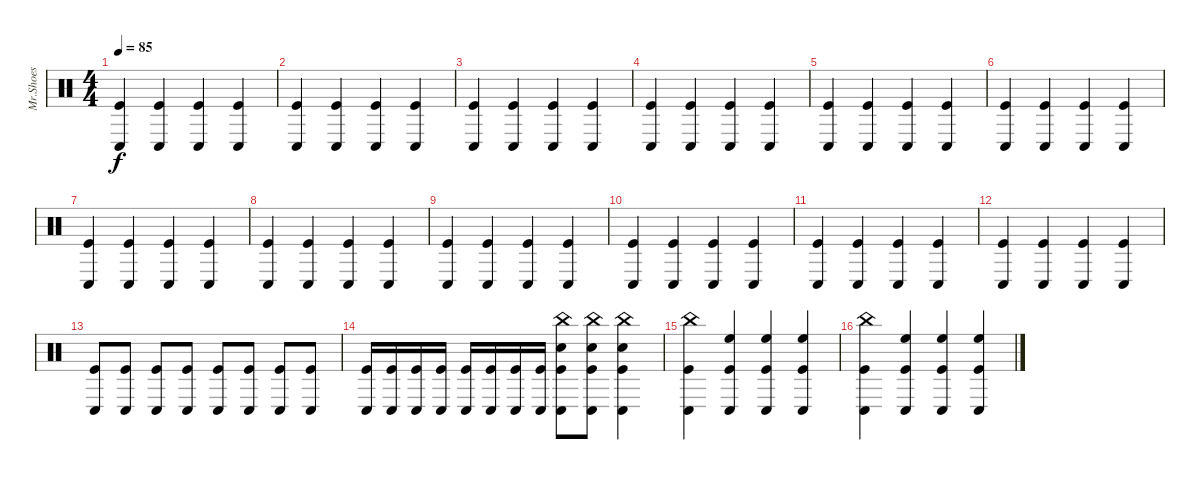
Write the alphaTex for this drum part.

\track ("Mr.Shoes" "Mr.Shoes") {instrument percussion}
\staff {score}
\articulation defaults
\ts (4 4)
\tempo 85
\clef neutral
\ks c
("Kick (hit)" "Conga low (hit)").4{dy f} ("Kick (hit)" "Conga low (hit)").4 ("Kick (hit)" "Conga low (hit)").4 ("Kick (hit)" "Conga low (hit)").4 |
("Kick (hit)" "Conga low (hit)").4 ("Kick (hit)" "Conga low (hit)").4 ("Kick (hit)" "Conga low (hit)").4 ("Kick (hit)" "Conga low (hit)").4 |
("Kick (hit)" "Conga low (hit)").4 ("Kick (hit)" "Conga low (hit)").4 ("Kick (hit)" "Conga low (hit)").4 ("Kick (hit)" "Conga low (hit)").4 |
("Kick (hit)" "Conga low (hit)").4 ("Kick (hit)" "Conga low (hit)").4 ("Kick (hit)" "Conga low (hit)").4 ("Kick (hit)" "Conga low (hit)").4 |
("Kick (hit)" "Conga low (hit)").4 ("Kick (hit)" "Conga low (hit)").4 ("Kick (hit)" "Conga low (hit)").4 ("Kick (hit)" "Conga low (hit)").4 |
("Kick (hit)" "Conga low (hit)").4 ("Kick (hit)" "Conga low (hit)").4 ("Kick (hit)" "Conga low (hit)").4 ("Kick (hit)" "Conga low (hit)").4 |
("Kick (hit)" "Conga low (hit)").4 ("Kick (hit)" "Conga low (hit)").4 ("Kick (hit)" "Conga low (hit)").4 ("Kick (hit)" "Conga low (hit)").4 |
("Kick (hit)" "Conga low (hit)").4 ("Kick (hit)" "Conga low (hit)").4 ("Kick (hit)" "Conga low (hit)").4 ("Kick (hit)" "Conga low (hit)").4 |
("Kick (hit)" "Conga low (hit)").4 ("Kick (hit)" "Conga low (hit)").4 ("Kick (hit)" "Conga low (hit)").4 ("Kick (hit)" "Conga low (hit)").4 |
("Kick (hit)" "Conga low (hit)").4 ("Kick (hit)" "Conga low (hit)").4 ("Kick (hit)" "Conga low (hit)").4 ("Kick (hit)" "Conga low (hit)").4 |
("Kick (hit)" "Conga low (hit)").4 ("Kick (hit)" "Conga low (hit)").4 ("Kick (hit)" "Conga low (hit)").4 ("Kick (hit)" "Conga low (hit)").4 |
("Kick (hit)" "Conga low (hit)").4 ("Kick (hit)" "Conga low (hit)").4 ("Kick (hit)" "Conga low (hit)").4 ("Kick (hit)" "Conga low (hit)").4 |
("Kick (hit)" "Conga low (hit)").8 ("Kick (hit)" "Conga low (hit)").8 ("Kick (hit)" "Conga low (hit)").8 ("Kick (hit)" "Conga low (hit)").8 ("Kick (hit)" "Conga low (hit)").8 ("Kick (hit)" "Conga low (hit)").8 ("Kick (hit)" "Conga low (hit)").8 ("Kick (hit)" "Conga low (hit)").8 |
("Kick (hit)" "Conga low (hit)").16 ("Kick (hit)" "Conga low (hit)").16 ("Kick (hit)" "Conga low (hit)").16 ("Kick (hit)" "Conga low (hit)").16 ("Kick (hit)" "Conga low (hit)").16 ("Kick (hit)" "Conga low (hit)").16 ("Kick (hit)" "Conga low (hit)").16 ("Kick (hit)" "Conga low (hit)").16 ("Electric Snare (hit)" "China (hit)" "Kick (hit)" "Conga low (hit)").8 ("Electric Snare (hit)" "China (hit)" "Kick (hit)" "Conga low (hit)").8 ("Electric Snare (hit)" "China (hit)" "Kick (hit)" "Conga low (hit)").4 |
("China (hit)" "Kick (hit)" "Conga low (hit)").4 ("High Floor Tom (hit)" "Kick (hit)" "Conga low (hit)").4 ("High Floor Tom (hit)" "Kick (hit)" "Conga low (hit)").4 ("High Floor Tom (hit)" "Kick (hit)" "Conga low (hit)").4 |
("China (hit)" "Kick (hit)" "Conga low (hit)").4 ("High Floor Tom (hit)" "Kick (hit)" "Conga low (hit)").4 ("High Floor Tom (hit)" "Kick (hit)" "Conga low (hit)").4 ("High Floor Tom (hit)" "Kick (hit)" "Conga low (hit)").4
